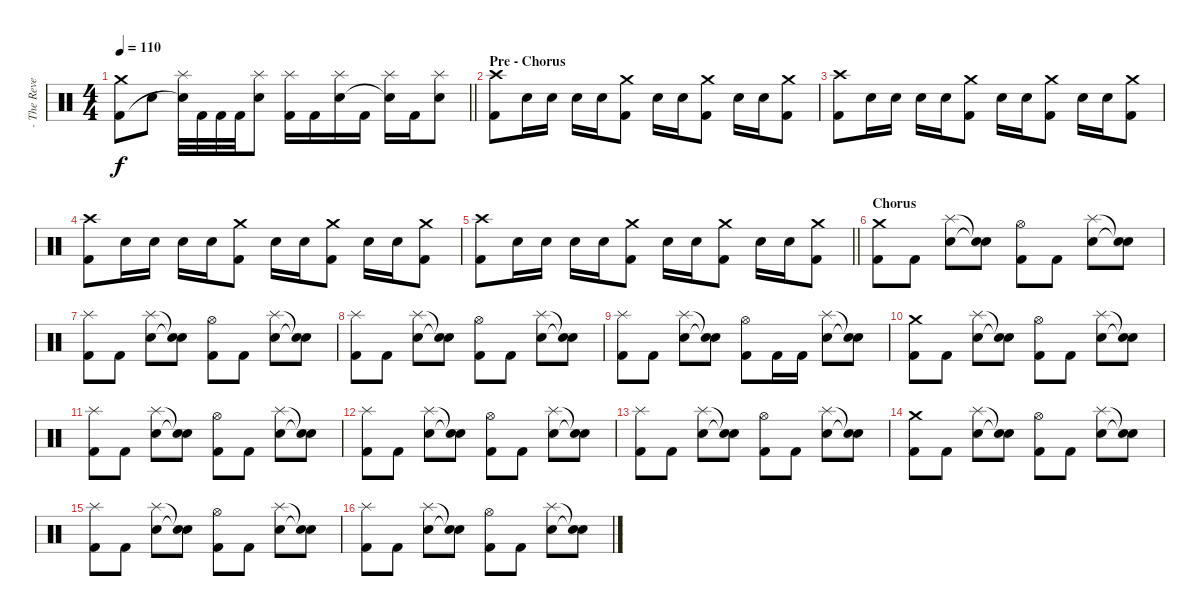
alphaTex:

\track ("- The Reverend - Drums" "- The Reve") {instrument percussion}
\staff {score}
\articulation defaults
\ts (4 4)
\tempo 110
\clef neutral
\barLineRight lightlight
\ks c
("Crash medium (hit)" "Kick (hit) 2").8{dy f} "Snare (hit) 2".8 ("Splash (hit)" "Snare (hit)"{t}).32 "Kick (hit) 2".32 "Kick (hit) 2".32 "Kick (hit) 2".32 ("Splash (hit)" "Snare (hit) 2").8 ("Splash (hit)" "Kick (hit) 2").16 "Kick (hit) 2".16 ("Splash (hit)" "Snare (hit) 2").16 "Kick (hit) 2".16 ("Splash (hit)" "Snare (hit)"{t}).16 "Kick (hit) 2".16 ("Splash (hit)" "Snare (hit) 2").8 |
\section ("" "Pre - Chorus")
("Crash high (hit)" "Kick (hit) 2").8 "Electric Snare (hit)".16 "Electric Snare (hit)".16 "Electric Snare (hit)".16 "Electric Snare (hit)".16 ("Crash medium (hit)" "Kick (hit) 2").8 "Electric Snare (hit)".16 "Electric Snare (hit)".16 ("Crash medium (hit)" "Kick (hit) 2").8 "Electric Snare (hit)".16 "Electric Snare (hit)".16 ("Crash medium (hit)" "Kick (hit) 2").8 |
("Crash high (hit)" "Kick (hit) 2").8 "Electric Snare (hit)".16 "Electric Snare (hit)".16 "Electric Snare (hit)".16 "Electric Snare (hit)".16 ("Crash medium (hit)" "Kick (hit) 2").8 "Electric Snare (hit)".16 "Electric Snare (hit)".16 ("Crash medium (hit)" "Kick (hit) 2").8 "Electric Snare (hit)".16 "Electric Snare (hit)".16 ("Crash medium (hit)" "Kick (hit) 2").8 |
("Crash high (hit)" "Kick (hit) 2").8 "Electric Snare (hit)".16 "Electric Snare (hit)".16 "Electric Snare (hit)".16 "Electric Snare (hit)".16 ("Crash medium (hit)" "Kick (hit) 2").8 "Electric Snare (hit)".16 "Electric Snare (hit)".16 ("Crash medium (hit)" "Kick (hit) 2").8 "Electric Snare (hit)".16 "Electric Snare (hit)".16 ("Crash medium (hit)" "Kick (hit) 2").8 |
\barLineRight lightlight
("Crash high (hit)" "Kick (hit) 2").8 "Electric Snare (hit)".16 "Electric Snare (hit)".16 "Electric Snare (hit)".16 "Electric Snare (hit)".16 ("Crash medium (hit)" "Kick (hit) 2").8 "Electric Snare (hit)".16 "Electric Snare (hit)".16 ("Crash medium (hit)" "Kick (hit) 2").8 "Electric Snare (hit)".16 "Electric Snare (hit)".16 ("Crash medium (hit)" "Kick (hit) 2").8 |
\section ("" "Chorus")
("Crash medium (hit)" "Kick (hit) 2").8 "Kick (hit) 2".8 ("Splash (hit)" "Snare (hit) 2").8 ("Snare (hit)"{t} "Snare (hit)"{t}).8 ("Hi-Hat (open)" "Kick (hit) 2").8 "Kick (hit) 2".8 ("Splash (hit)" "Snare (hit) 2").8 ("Snare (hit)"{t} "Snare (hit)"{t}).8 |
("Splash (hit)" "Kick (hit) 2").8 "Kick (hit) 2".8 ("Splash (hit)" "Snare (hit) 2").8 ("Snare (hit)"{t} "Snare (hit)"{t}).8 ("Hi-Hat (open)" "Kick (hit) 2").8 "Kick (hit) 2".8 ("Splash (hit)" "Snare (hit) 2").8 ("Snare (hit)"{t} "Snare (hit)"{t}).8 |
("Splash (hit)" "Kick (hit) 2").8 "Kick (hit) 2".8 ("Splash (hit)" "Snare (hit) 2").8 ("Snare (hit)"{t} "Snare (hit)"{t}).8 ("Hi-Hat (open)" "Kick (hit) 2").8 "Kick (hit) 2".8 ("Splash (hit)" "Snare (hit) 2").8 ("Snare (hit)"{t} "Snare (hit)"{t}).8 |
("Splash (hit)" "Kick (hit) 2").8 "Kick (hit) 2".8 ("Splash (hit)" "Snare (hit) 2").8 ("Snare (hit)"{t} "Snare (hit)"{t}).8 ("Hi-Hat (open)" "Kick (hit) 2").8 "Kick (hit) 2".16 "Kick (hit) 2".16 ("Splash (hit)" "Snare (hit) 2").8 ("Snare (hit)"{t} "Snare (hit)"{t}).8 |
("Crash medium (hit)" "Kick (hit) 2").8 "Kick (hit) 2".8 ("Splash (hit)" "Snare (hit) 2").8 ("Snare (hit)"{t} "Snare (hit)"{t}).8 ("Hi-Hat (open)" "Kick (hit) 2").8 "Kick (hit) 2".8 ("Splash (hit)" "Snare (hit) 2").8 ("Snare (hit)"{t} "Snare (hit)"{t}).8 |
("Splash (hit)" "Kick (hit) 2").8 "Kick (hit) 2".8 ("Splash (hit)" "Snare (hit) 2").8 ("Snare (hit)"{t} "Snare (hit)"{t}).8 ("Hi-Hat (open)" "Kick (hit) 2").8 "Kick (hit) 2".8 ("Splash (hit)" "Snare (hit) 2").8 ("Snare (hit)"{t} "Snare (hit)"{t}).8 |
("Splash (hit)" "Kick (hit) 2").8 "Kick (hit) 2".8 ("Splash (hit)" "Snare (hit) 2").8 ("Snare (hit)"{t} "Snare (hit)"{t}).8 ("Hi-Hat (open)" "Kick (hit) 2").8 "Kick (hit) 2".8 ("Splash (hit)" "Snare (hit) 2").8 ("Snare (hit)"{t} "Snare (hit)"{t}).8 |
("Splash (hit)" "Kick (hit) 2").8 "Kick (hit) 2".8 ("Splash (hit)" "Snare (hit) 2").8 ("Snare (hit)"{t} "Snare (hit)"{t}).8 ("Hi-Hat (open)" "Kick (hit) 2").8 "Kick (hit) 2".8 ("Splash (hit)" "Snare (hit) 2").8 ("Snare (hit)"{t} "Snare (hit)"{t}).8 |
("Crash medium (hit)" "Kick (hit) 2").8 "Kick (hit) 2".8 ("Splash (hit)" "Snare (hit) 2").8 ("Snare (hit)"{t} "Snare (hit)"{t}).8 ("Hi-Hat (open)" "Kick (hit) 2").8 "Kick (hit) 2".8 ("Splash (hit)" "Snare (hit) 2").8 ("Snare (hit)"{t} "Snare (hit)"{t}).8 |
("Splash (hit)" "Kick (hit) 2").8 "Kick (hit) 2".8 ("Splash (hit)" "Snare (hit) 2").8 ("Snare (hit)"{t} "Snare (hit)"{t}).8 ("Hi-Hat (open)" "Kick (hit) 2").8 "Kick (hit) 2".8 ("Splash (hit)" "Snare (hit) 2").8 ("Snare (hit)"{t} "Snare (hit)"{t}).8 |
("Splash (hit)" "Kick (hit) 2").8 "Kick (hit) 2".8 ("Splash (hit)" "Snare (hit) 2").8 ("Snare (hit)"{t} "Snare (hit)"{t}).8 ("Hi-Hat (open)" "Kick (hit) 2").8 "Kick (hit) 2".8 ("Splash (hit)" "Snare (hit) 2").8 ("Snare (hit)"{t} "Snare (hit)"{t}).8
